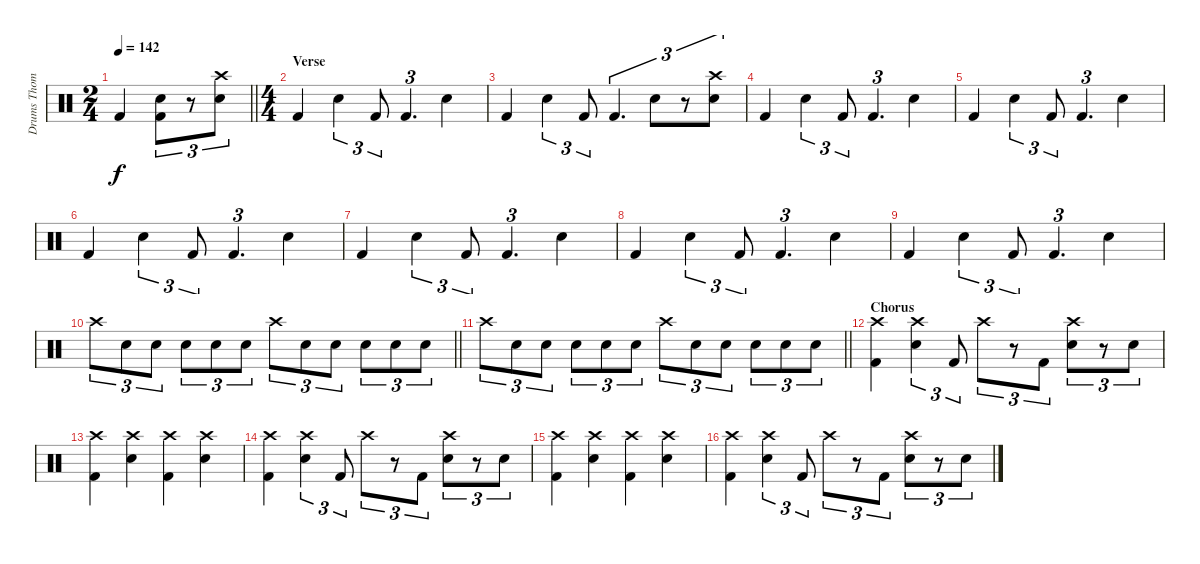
\track ("Drums Thomas Goetz" "Drums Thom") {instrument percussion}
\staff {score}
\articulation defaults
\ts (2 4)
\tempo 142
\clef neutral
\barLineRight lightlight
\ks c "Kick (hit) 2".4{dy f}
("Snare (hit) 2" "Kick (hit) 2").8{tu (3 2)} r.8{tu (3 2)} ("Crash high (hit)" "Snare (hit) 2").8{tu (3 2)} |
\ts (4 4)
\section ("" "Verse")
"Kick (hit) 2".4 "Snare (hit) 2".4{tu (3 2)} "Kick (hit) 2".8{tu (3 2)} "Kick (hit) 2".4{d tu (3 2)} "Snare (hit) 2".4 |
"Kick (hit) 2".4 "Snare (hit) 2".4{tu (3 2)} "Kick (hit) 2".8{tu (3 2)} "Kick (hit) 2".4{d tu (3 2)} "Snare (hit) 2".8{tu (3 2)} r.8{tu (3 2)} ("Crash high (hit)" "Snare (hit) 2").8{tu (3 2)} |
"Kick (hit) 2".4 "Snare (hit) 2".4{tu (3 2)} "Kick (hit) 2".8{tu (3 2)} "Kick (hit) 2".4{d tu (3 2)} "Snare (hit) 2".4 |
"Kick (hit) 2".4 "Snare (hit) 2".4{tu (3 2)} "Kick (hit) 2".8{tu (3 2)} "Kick (hit) 2".4{d tu (3 2)} "Snare (hit) 2".4 |
"Kick (hit) 2".4 "Snare (hit) 2".4{tu (3 2)} "Kick (hit) 2".8{tu (3 2)} "Kick (hit) 2".4{d tu (3 2)} "Snare (hit) 2".4 |
"Kick (hit) 2".4 "Snare (hit) 2".4{tu (3 2)} "Kick (hit) 2".8{tu (3 2)} "Kick (hit) 2".4{d tu (3 2)} "Snare (hit) 2".4 |
"Kick (hit) 2".4 "Snare (hit) 2".4{tu (3 2)} "Kick (hit) 2".8{tu (3 2)} "Kick (hit) 2".4{d tu (3 2)} "Snare (hit) 2".4 |
"Kick (hit) 2".4 "Snare (hit) 2".4{tu (3 2)} "Kick (hit) 2".8{tu (3 2)} "Kick (hit) 2".4{d tu (3 2)} "Snare (hit) 2".4 |
\barLineRight lightlight "Crash high (hit)".8{tu (3 2)} "Snare (hit) 2".8{tu (3 2)} "Snare (hit) 2".8{tu (3 2)} "Snare (hit) 2".8{tu (3 2)} "Snare (hit) 2".8{tu (3 2)} "Snare (hit) 2".8{tu (3 2)} "Crash high (hit)".8{tu (3 2)} "Snare (hit) 2".8{tu (3 2)} "Snare (hit) 2".8{tu (3 2)} "Snare (hit) 2".8{tu (3 2)} "Snare (hit) 2".8{tu (3 2)} "Snare (hit) 2".8{tu (3 2)}
|
\barLineRight lightlight "Crash high (hit)".8{tu (3 2)} "Snare (hit) 2".8{tu (3 2)} "Snare (hit) 2".8{tu (3 2)} "Snare (hit) 2".8{tu (3 2)} "Snare (hit) 2".8{tu (3 2)} "Snare (hit) 2".8{tu (3 2)} "Crash high (hit)".8{tu (3 2)} "Snare (hit) 2".8{tu (3 2)} "Snare (hit) 2".8{tu (3 2)} "Snare (hit) 2".8{tu (3 2)} "Snare (hit) 2".8{tu (3 2)} "Snare (hit) 2".8{tu (3 2)}
|
\section ("" "Chorus")
("Crash high (hit)" "Kick (hit) 2").4 ("Crash high (hit)" "Snare (hit) 2").4{tu (3 2)} "Kick (hit) 2".8{tu (3 2)} "Crash high (hit)".8{tu (3 2)} r.8{tu (3 2)} "Kick (hit) 2".8{tu (3 2)} ("Crash high (hit)" "Snare (hit) 2").8{tu (3 2)} r.8{tu (3 2)} "Snare (hit) 2".8{tu (3 2)} |
("Crash high (hit)" "Kick (hit) 2").4 ("Crash high (hit)" "Snare (hit) 2").4 ("Crash high (hit)" "Kick (hit) 2").4 ("Crash high (hit)" "Snare (hit) 2").4 |
("Crash high (hit)" "Kick (hit) 2").4 ("Crash high (hit)" "Snare (hit) 2").4{tu (3 2)} "Kick (hit) 2".8{tu (3 2)} "Crash high (hit)".8{tu (3 2)} r.8{tu (3 2)} "Kick (hit) 2".8{tu (3 2)} ("Crash high (hit)" "Snare (hit) 2").8{tu (3 2)} r.8{tu (3 2)} "Snare (hit) 2".8{tu (3 2)} |
("Crash high (hit)" "Kick (hit) 2").4 ("Crash high (hit)" "Snare (hit) 2").4 ("Crash high (hit)" "Kick (hit) 2").4 ("Crash high (hit)" "Snare (hit) 2").4 |
("Crash high (hit)" "Kick (hit) 2").4 ("Crash high (hit)" "Snare (hit) 2").4{tu (3 2)} "Kick (hit) 2".8{tu (3 2)} "Crash high (hit)".8{tu (3 2)} r.8{tu (3 2)} "Kick (hit) 2".8{tu (3 2)} ("Crash high (hit)" "Snare (hit) 2").8{tu (3 2)} r.8{tu (3 2)} "Snare (hit) 2".8{tu (3 2)}
